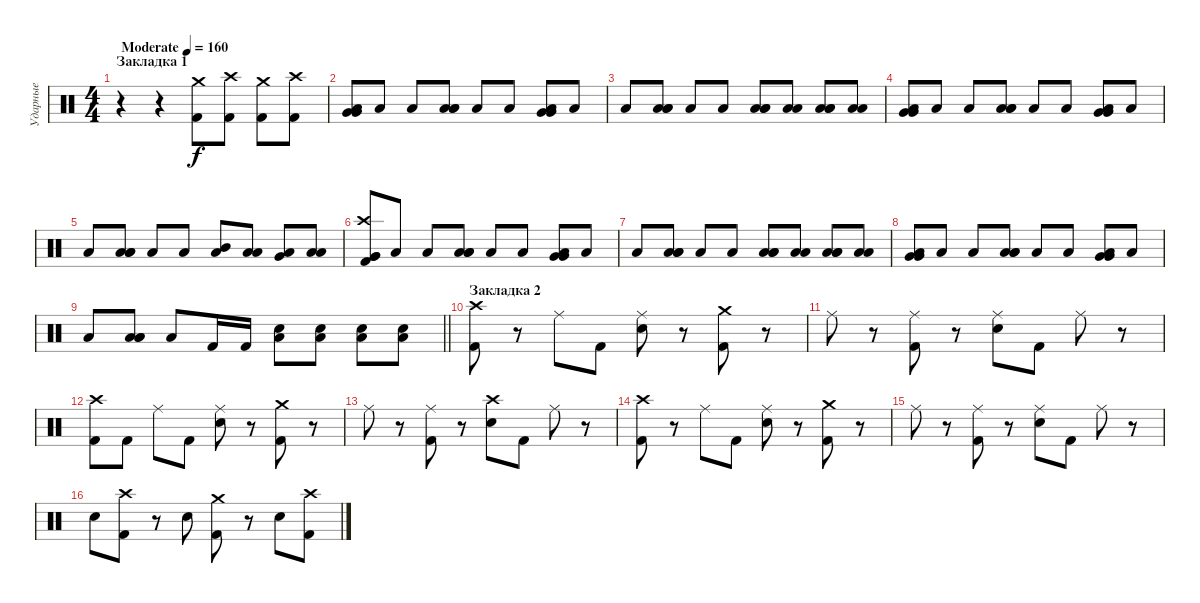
\track ("Ударные" "Ударные") {instrument percussion}
\staff {score}
\articulation defaults
\ts (4 4)
\section ("" "Закладка 1")
\tempo (160 "Moderate")
\clef neutral
\ks c
r.4{dy f} r.4 ("Crash medium (hit)" "Kick (hit) 2").8 ("Crash high (hit)" "Kick (hit) 2").8 ("Crash medium (hit)" "Kick (hit) 2").8 ("Crash high (hit)" "Kick (hit) 2").8 |
("Very Low Tom (hit)" "Very Low Tom (hit)" "Low Floor Tom (hit)").8 "Low Floor Tom (hit)".8 "Low Floor Tom (hit)".8 ("Low Tom (hit)" "Low Tom (hit)" "Low Floor Tom (hit)").8 "Low Floor Tom (hit)".8 "Low Floor Tom (hit)".8 ("Very Low Tom (hit)" "Very Low Tom (hit)" "Low Floor Tom (hit)").8 "Low Floor Tom (hit)".8 |
"Low Floor Tom (hit)".8 ("Low Tom (hit)" "Low Tom (hit)" "Low Floor Tom (hit)").8 "Low Floor Tom (hit)".8 "Low Floor Tom (hit)".8 ("Low Floor Tom (hit)" "Low Tom (hit)" "Low Floor Tom (hit)").8 ("Low Tom (hit)" "Low Floor Tom (hit)").8 ("Low Floor Tom (hit)" "Low Tom (hit)" "Low Floor Tom (hit)").8 ("Low Tom (hit)" "Low Floor Tom (hit)").8 |
("Very Low Tom (hit)" "Very Low Tom (hit)" "Low Floor Tom (hit)").8 "Low Floor Tom (hit)".8 "Low Floor Tom (hit)".8 ("Low Tom (hit)" "Low Tom (hit)" "Low Floor Tom (hit)").8 "Low Floor Tom (hit)".8 "Low Floor Tom (hit)".8 ("Very Low Tom (hit)" "Very Low Tom (hit)" "Low Floor Tom (hit)").8 "Low Floor Tom (hit)".8 |
"Low Floor Tom (hit)".8 ("Low Tom (hit)" "Low Tom (hit)" "Low Floor Tom (hit)").8 "Low Floor Tom (hit)".8 "Low Floor Tom (hit)".8 ("Mid Tom (hit)" "Low Floor Tom (hit)").8 ("Low Tom (hit)" "Low Floor Tom (hit)").8 ("Very Low Tom (hit)" "Low Floor Tom (hit)").8 ("Low Floor Tom (hit)" "Low Floor Tom (hit)").8 |
("Crash high (hit)" "Very Low Tom (hit)" "Very Low Tom (hit)" "Kick (hit) 2").8 "Low Floor Tom (hit)".8 "Low Floor Tom (hit)".8 ("Low Tom (hit)" "Low Tom (hit)" "Low Floor Tom (hit)").8 "Low Floor Tom (hit)".8 "Low Floor Tom (hit)".8 ("Very Low Tom (hit)" "Very Low Tom (hit)" "Low Floor Tom (hit)").8 "Low Floor Tom (hit)".8 |
"Low Floor Tom (hit)".8 ("Low Tom (hit)" "Low Tom (hit)" "Low Floor Tom (hit)").8 "Low Floor Tom (hit)".8 "Low Floor Tom (hit)".8 ("Low Floor Tom (hit)" "Low Tom (hit)" "Low Floor Tom (hit)").8 ("Low Tom (hit)" "Low Floor Tom (hit)").8 ("Low Floor Tom (hit)" "Low Tom (hit)" "Low Floor Tom (hit)").8 ("Low Tom (hit)" "Low Floor Tom (hit)").8 |
("Very Low Tom (hit)" "Very Low Tom (hit)" "Low Floor Tom (hit)").8 "Low Floor Tom (hit)".8 "Low Floor Tom (hit)".8 ("Low Tom (hit)" "Low Tom (hit)" "Low Floor Tom (hit)").8 "Low Floor Tom (hit)".8 "Low Floor Tom (hit)".8 ("Very Low Tom (hit)" "Very Low Tom (hit)" "Low Floor Tom (hit)").8 "Low Floor Tom (hit)".8 |
\barLineRight lightlight "Low Floor Tom (hit)".8
("Low Tom (hit)" "Low Tom (hit)" "Low Floor Tom (hit)").8 "Low Floor Tom (hit)".8 "Kick (hit) 2".16 "Kick (hit) 2".16 ("Snare (hit) 2" "Low Floor Tom (hit)").8 ("Snare (hit) 2" "Low Floor Tom (hit)").8 ("Snare (hit) 2" "Low Floor Tom (hit)").8 ("Snare (hit) 2" "Low Floor Tom (hit)").8 |
\section ("" "Закладка 2")
("Crash high (hit)" "Kick (hit) 2").8 r.8 "Ride (middle)".8 "Kick (hit) 2".8 ("Ride (middle)" "Snare (hit) 2").8 r.8 ("Crash medium (hit)" "Kick (hit) 2").8 r.8 |
"Ride (middle)".8 r.8 ("Ride (middle)" "Kick (hit) 2").8 r.8 ("Ride (middle)" "Snare (hit) 2").8 "Kick (hit) 2".8 "Ride (middle)".8 r.8 |
("Crash high (hit)" "Kick (hit) 2").8 "Kick (hit) 2".8 "Ride (middle)".8 "Kick (hit) 2".8 ("Ride (middle)" "Snare (hit) 2").8 r.8 ("Crash medium (hit)" "Kick (hit) 2").8 r.8 |
"Ride (middle)".8 r.8 ("Ride (middle)" "Kick (hit) 2").8 r.8 ("Crash high (hit)" "Snare (hit) 2").8 "Kick (hit) 2".8 "Ride (middle)".8 r.8 |
("Crash high (hit)" "Kick (hit) 2").8 r.8 "Ride (middle)".8 "Kick (hit) 2".8 ("Ride (middle)" "Snare (hit) 2").8 r.8 ("Crash medium (hit)" "Kick (hit) 2").8 r.8 |
"Ride (middle)".8 r.8 ("Ride (middle)" "Kick (hit) 2").8 r.8 ("Ride (middle)" "Snare (hit) 2").8 "Kick (hit) 2".8 "Ride (middle)".8 r.8 |
"Snare (hit) 2".8 ("Crash high (hit)" "Kick (hit) 2").8 r.8 "Snare (hit) 2".8 ("Crash medium (hit)" "Kick (hit) 2").8 r.8 "Snare (hit) 2".8 ("Crash high (hit)" "Kick (hit) 2").8
